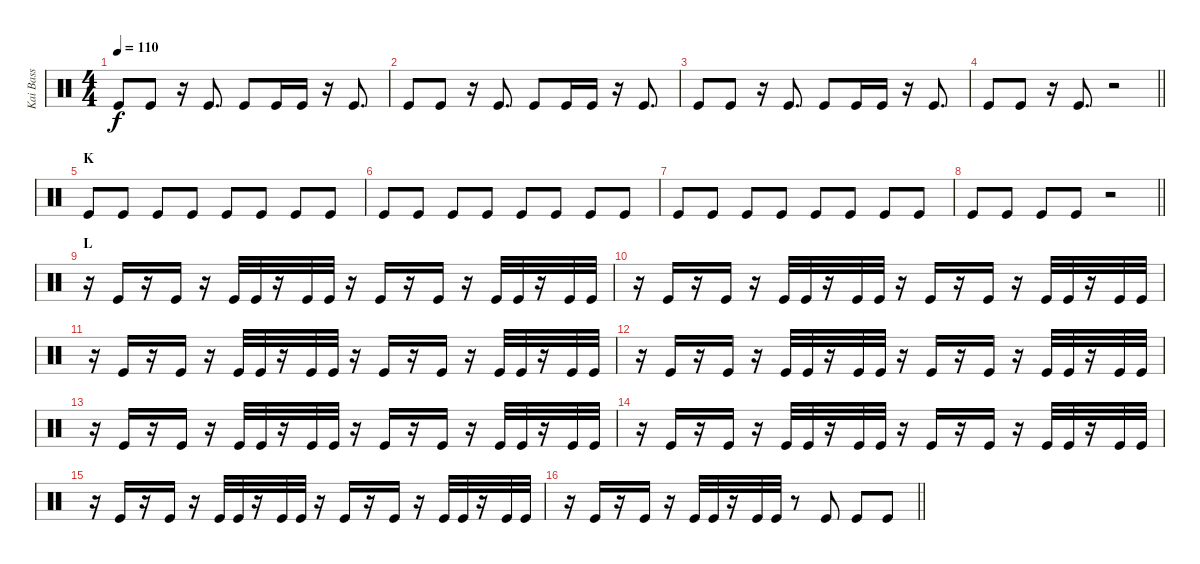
\track ("Kai Bass" "Kai Bass") {instrument percussion}
\staff {score}
\articulation defaults
\ts (4 4)
\tempo 110
\clef neutral
\ks c "Kick (hit)".8{dy f} "Kick (hit)".8
r.16 "Kick (hit)".8{d} "Kick (hit)".8 "Kick (hit)".16 "Kick (hit)".16 r.16 "Kick (hit)".8{d} |
"Kick (hit)".8 "Kick (hit)".8 r.16 "Kick (hit)".8{d} "Kick (hit)".8 "Kick (hit)".16 "Kick (hit)".16 r.16 "Kick (hit)".8{d} |
"Kick (hit)".8 "Kick (hit)".8 r.16 "Kick (hit)".8{d} "Kick (hit)".8 "Kick (hit)".16 "Kick (hit)".16 r.16 "Kick (hit)".8{d} |
\barLineRight lightlight "Kick (hit)".8 "Kick (hit)".8
r.16 "Kick (hit)".8{d} r.2 |
\section ("" "K")
"Kick (hit)".8 "Kick (hit)".8 "Kick (hit)".8 "Kick (hit)".8 "Kick (hit)".8 "Kick (hit)".8 "Kick (hit)".8 "Kick (hit)".8 |
"Kick (hit)".8 "Kick (hit)".8 "Kick (hit)".8 "Kick (hit)".8 "Kick (hit)".8 "Kick (hit)".8 "Kick (hit)".8 "Kick (hit)".8 |
"Kick (hit)".8 "Kick (hit)".8 "Kick (hit)".8 "Kick (hit)".8 "Kick (hit)".8 "Kick (hit)".8 "Kick (hit)".8 "Kick (hit)".8 |
\barLineRight lightlight "Kick (hit)".8 "Kick (hit)".8 "Kick (hit)".8 "Kick (hit)".8
r.2 |
\section ("" "L")
r.16 "Kick (hit)".16 r.16 "Kick (hit)".16 r.16 "Kick (hit)".32 "Kick (hit)".32 r.16 "Kick (hit)".32 "Kick (hit)".32 r.16 "Kick (hit)".16 r.16 "Kick (hit)".16 r.16 "Kick (hit)".32 "Kick (hit)".32 r.16 "Kick (hit)".32 "Kick (hit)".32 |
r.16 "Kick (hit)".16 r.16 "Kick (hit)".16 r.16 "Kick (hit)".32 "Kick (hit)".32 r.16 "Kick (hit)".32 "Kick (hit)".32 r.16 "Kick (hit)".16 r.16 "Kick (hit)".16 r.16 "Kick (hit)".32 "Kick (hit)".32 r.16 "Kick (hit)".32 "Kick (hit)".32 |
r.16 "Kick (hit)".16 r.16 "Kick (hit)".16 r.16 "Kick (hit)".32 "Kick (hit)".32 r.16 "Kick (hit)".32 "Kick (hit)".32 r.16 "Kick (hit)".16 r.16 "Kick (hit)".16 r.16 "Kick (hit)".32 "Kick (hit)".32 r.16 "Kick (hit)".32 "Kick (hit)".32 |
r.16 "Kick (hit)".16 r.16 "Kick (hit)".16 r.16 "Kick (hit)".32 "Kick (hit)".32 r.16 "Kick (hit)".32 "Kick (hit)".32 r.16 "Kick (hit)".16 r.16 "Kick (hit)".16 r.16 "Kick (hit)".32 "Kick (hit)".32 r.16 "Kick (hit)".32 "Kick (hit)".32 |
r.16 "Kick (hit)".16 r.16 "Kick (hit)".16 r.16 "Kick (hit)".32 "Kick (hit)".32 r.16 "Kick (hit)".32 "Kick (hit)".32 r.16 "Kick (hit)".16 r.16 "Kick (hit)".16 r.16 "Kick (hit)".32 "Kick (hit)".32 r.16 "Kick (hit)".32 "Kick (hit)".32 |
r.16 "Kick (hit)".16 r.16 "Kick (hit)".16 r.16 "Kick (hit)".32 "Kick (hit)".32 r.16 "Kick (hit)".32 "Kick (hit)".32 r.16 "Kick (hit)".16 r.16 "Kick (hit)".16 r.16 "Kick (hit)".32 "Kick (hit)".32 r.16 "Kick (hit)".32 "Kick (hit)".32 |
r.16 "Kick (hit)".16 r.16 "Kick (hit)".16 r.16 "Kick (hit)".32 "Kick (hit)".32 r.16 "Kick (hit)".32 "Kick (hit)".32 r.16 "Kick (hit)".16 r.16 "Kick (hit)".16 r.16 "Kick (hit)".32 "Kick (hit)".32 r.16 "Kick (hit)".32 "Kick (hit)".32 |
\barLineRight lightlight
r.16 "Kick (hit)".16 r.16 "Kick (hit)".16 r.16 "Kick (hit)".32 "Kick (hit)".32 r.16 "Kick (hit)".32 "Kick (hit)".32 r.8 "Kick (hit)".8 "Kick (hit)".8 "Kick (hit)".8
